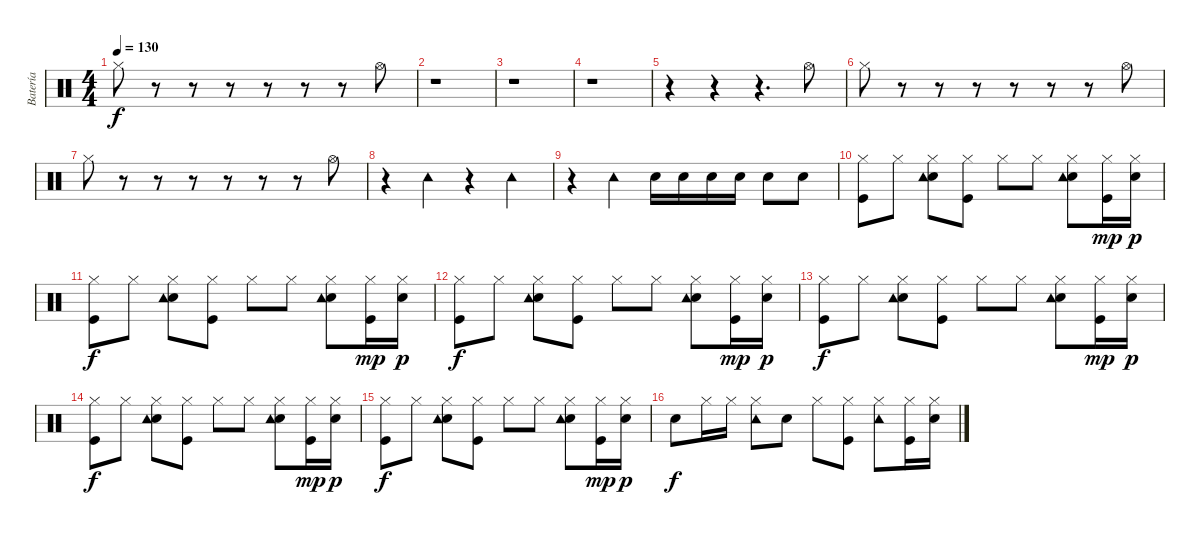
\track ("Batería" "Batería") {instrument percussion}
\staff {score}
\articulation defaults
\ts (4 4)
\tempo 130
\clef neutral
\ks c "Hi-Hat (closed)".8{dy f}
r.8 r.8 r.8 r.8 r.8 r.8 "Hi-Hat (open)".8 |
r.1 |
r.1 |
r.1 |
r.4 r.4 r.4{d} "Hi-Hat (open)".8 |
"Hi-Hat (closed)".8 r.8 r.8 r.8 r.8 r.8 r.8 "Hi-Hat (open)".8 |
"Hi-Hat (closed)".8 r.8 r.8 r.8 r.8 r.8 r.8 "Hi-Hat (open)".8 |
r.4 "Tambourine (hit)".4 r.4 "Tambourine (hit)".4 |
r.4 "Tambourine (hit)".4 "Snare (hit) 2".16 "Snare (hit) 2".16 "Snare (hit) 2".16 "Snare (hit) 2".16 "Snare (hit) 2".8 "Snare (hit) 2".8 |
("Hi-Hat (closed)" "Kick (hit)").8 "Hi-Hat (closed)".8 ("Hi-Hat (closed)" "Snare (hit) 2" "Tambourine (hit)").8 ("Hi-Hat (closed)" "Kick (hit)").8 "Hi-Hat (closed)".8 "Hi-Hat (closed)".8 ("Hi-Hat (closed)" "Snare (hit) 2" "Tambourine (hit)").8 ("Hi-Hat (closed)" "Kick (hit)").16{dy mp} ("Hi-Hat (closed)" "Snare (hit) 2").16{dy p} |
("Hi-Hat (closed)" "Kick (hit)").8{dy f} "Hi-Hat (closed)".8 ("Hi-Hat (closed)" "Snare (hit) 2" "Tambourine (hit)").8 ("Hi-Hat (closed)" "Kick (hit)").8 "Hi-Hat (closed)".8 "Hi-Hat (closed)".8 ("Hi-Hat (closed)" "Snare (hit) 2" "Tambourine (hit)").8 ("Hi-Hat (closed)" "Kick (hit)").16{dy mp} ("Hi-Hat (closed)" "Snare (hit) 2").16{dy p} |
("Hi-Hat (closed)" "Kick (hit)").8{dy f} "Hi-Hat (closed)".8 ("Hi-Hat (closed)" "Snare (hit) 2" "Tambourine (hit)").8 ("Hi-Hat (closed)" "Kick (hit)").8 "Hi-Hat (closed)".8 "Hi-Hat (closed)".8 ("Hi-Hat (closed)" "Snare (hit) 2" "Tambourine (hit)").8 ("Hi-Hat (closed)" "Kick (hit)").16{dy mp} ("Hi-Hat (closed)" "Snare (hit) 2").16{dy p} |
("Hi-Hat (closed)" "Kick (hit)").8{dy f} "Hi-Hat (closed)".8 ("Hi-Hat (closed)" "Snare (hit) 2" "Tambourine (hit)").8 ("Hi-Hat (closed)" "Kick (hit)").8 "Hi-Hat (closed)".8 "Hi-Hat (closed)".8 ("Hi-Hat (closed)" "Snare (hit) 2" "Tambourine (hit)").8 ("Hi-Hat (closed)" "Kick (hit)").16{dy mp} ("Hi-Hat (closed)" "Snare (hit) 2").16{dy p} |
("Hi-Hat (closed)" "Kick (hit)").8{dy f} "Hi-Hat (closed)".8 ("Hi-Hat (closed)" "Snare (hit) 2" "Tambourine (hit)").8 ("Hi-Hat (closed)" "Kick (hit)").8 "Hi-Hat (closed)".8 "Hi-Hat (closed)".8 ("Hi-Hat (closed)" "Snare (hit) 2" "Tambourine (hit)").8 ("Hi-Hat (closed)" "Kick (hit)").16{dy mp} ("Hi-Hat (closed)" "Snare (hit) 2").16{dy p} |
("Hi-Hat (closed)" "Kick (hit)").8{dy f} "Hi-Hat (closed)".8 ("Hi-Hat (closed)" "Snare (hit) 2" "Tambourine (hit)").8 ("Hi-Hat (closed)" "Kick (hit)").8 "Hi-Hat (closed)".8 "Hi-Hat (closed)".8 ("Hi-Hat (closed)" "Snare (hit) 2" "Tambourine (hit)").8 ("Hi-Hat (closed)" "Kick (hit)").16{dy mp} ("Hi-Hat (closed)" "Snare (hit) 2").16{dy p} |
"Snare (hit) 2".8{dy f} "Hi-Hat (closed)".16 "Hi-Hat (closed)".16 ("Hi-Hat (closed)" "Tambourine (hit)").8 "Snare (hit) 2".8 "Hi-Hat (closed)".8 ("Hi-Hat (closed)" "Kick (hit)").8 ("Hi-Hat (closed)" "Tambourine (hit)").8 ("Hi-Hat (closed)" "Kick (hit)").16 ("Hi-Hat (closed)" "Snare (hit) 2").16
